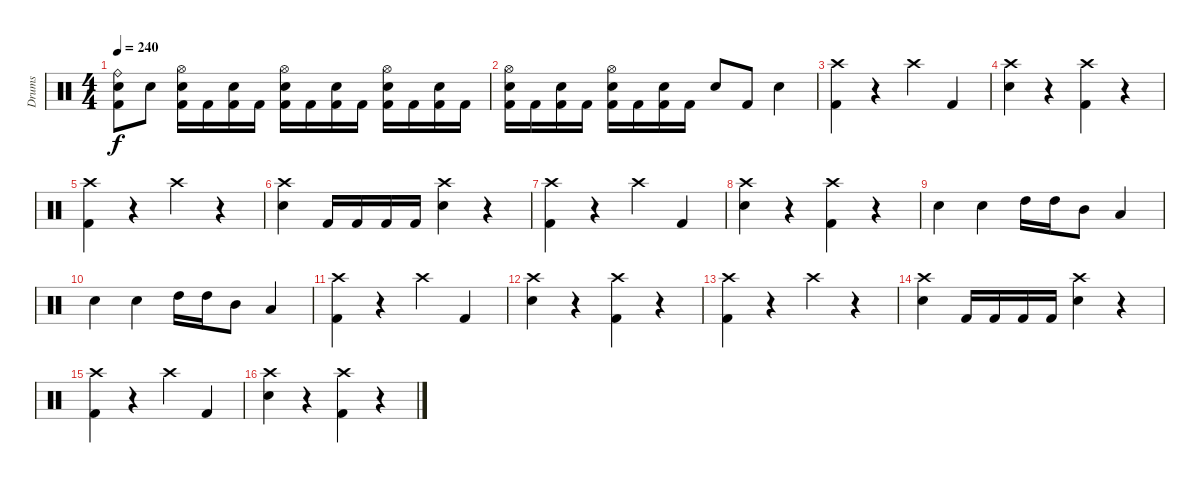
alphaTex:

\track ("Drums" "Drums") {instrument percussion}
\staff {score}
\articulation defaults
\ts (4 4)
\tempo 240
\clef neutral
\ks c
("Ride (bell)" "Snare (hit) 2" "Kick (hit) 2").8{dy f} "Snare (hit) 2".8 ("Hi-Hat (open)" "Snare (hit) 2" "Kick (hit) 2").16 "Kick (hit) 2".16 ("Snare (hit) 2" "Kick (hit) 2").16 "Kick (hit) 2".16 ("Hi-Hat (open)" "Snare (hit) 2" "Kick (hit) 2").16 "Kick (hit) 2".16 ("Snare (hit) 2" "Kick (hit) 2").16 "Kick (hit) 2".16 ("Hi-Hat (open)" "Snare (hit) 2" "Kick (hit) 2").16 "Kick (hit) 2".16 ("Snare (hit) 2" "Kick (hit) 2").16 "Kick (hit) 2".16 |
("Hi-Hat (open)" "Snare (hit) 2" "Kick (hit) 2").16 "Kick (hit) 2".16 ("Snare (hit) 2" "Kick (hit) 2").16 "Kick (hit) 2".16 ("Hi-Hat (open)" "Snare (hit) 2" "Kick (hit) 2").16 "Kick (hit) 2".16 ("Snare (hit) 2" "Kick (hit) 2").16 "Kick (hit) 2".16 "Snare (hit) 2".8 "Kick (hit) 2".8 "Snare (hit) 2".4 |
("Crash high (hit)" "Kick (hit) 2").4 r.4 "Crash high (hit)".4 "Kick (hit) 2".4 |
("Crash high (hit)" "Snare (hit) 2").4 r.4 ("Crash high (hit)" "Kick (hit) 2").4 r.4 |
("Crash high (hit)" "Kick (hit) 2").4 r.4 "Crash high (hit)".4 r.4 |
("Crash high (hit)" "Snare (hit) 2").4 "Kick (hit) 2".16 "Kick (hit) 2".16 "Kick (hit) 2".16 "Kick (hit) 2".16 ("Crash high (hit)" "Snare (hit) 2").4 r.4 |
("Crash high (hit)" "Kick (hit) 2").4 r.4 "Crash high (hit)".4 "Kick (hit) 2".4 |
("Crash high (hit)" "Snare (hit) 2").4 r.4 ("Crash high (hit)" "Kick (hit) 2").4 r.4 |
"Snare (hit) 2".4 "Snare (hit) 2".4 "High Tom (hit)".16 "High Tom (hit)".16 "Mid Tom (hit)".8 "Low Tom (hit)".4 |
"Snare (hit) 2".4 "Snare (hit) 2".4 "High Tom (hit)".16 "High Tom (hit)".16 "Mid Tom (hit)".8 "Low Tom (hit)".4 |
("Crash high (hit)" "Kick (hit) 2").4 r.4 "Crash high (hit)".4 "Kick (hit) 2".4 |
("Crash high (hit)" "Snare (hit) 2").4 r.4 ("Crash high (hit)" "Kick (hit) 2").4 r.4 |
("Crash high (hit)" "Kick (hit) 2").4 r.4 "Crash high (hit)".4 r.4 |
("Crash high (hit)" "Snare (hit) 2").4 "Kick (hit) 2".16 "Kick (hit) 2".16 "Kick (hit) 2".16 "Kick (hit) 2".16 ("Crash high (hit)" "Snare (hit) 2").4 r.4 |
("Crash high (hit)" "Kick (hit) 2").4 r.4 "Crash high (hit)".4 "Kick (hit) 2".4 |
("Crash high (hit)" "Snare (hit) 2").4 r.4 ("Crash high (hit)" "Kick (hit) 2").4 r.4
